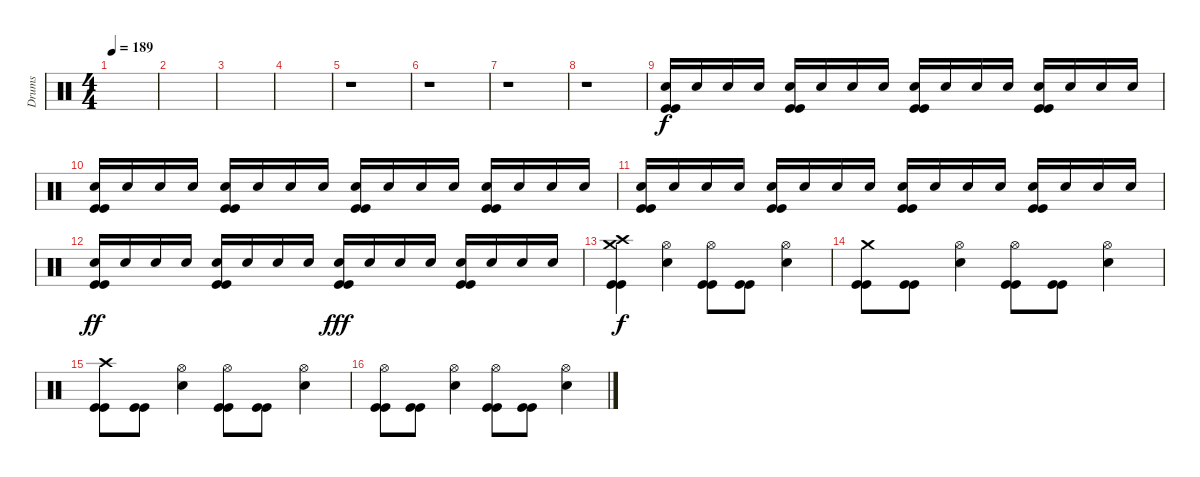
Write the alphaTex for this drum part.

\track ("Drums" "Drums") {instrument percussion}
\staff {score}
\articulation defaults
\ts (4 4)
\tempo 189
\clef neutral
\ks c
|
|
|
|
r.1 |
r.1 |
r.1 |
r.1 |
("Electric Snare (hit)" "Kick (hit)" "Kick (hit)").16 "Electric Snare (hit)".16 "Electric Snare (hit)".16 "Electric Snare (hit)".16 ("Electric Snare (hit)" "Kick (hit)" "Kick (hit)").16 "Electric Snare (hit)".16 "Electric Snare (hit)".16 "Electric Snare (hit)".16 ("Electric Snare (hit)" "Kick (hit)" "Kick (hit)").16 "Electric Snare (hit)".16 "Electric Snare (hit)".16 "Electric Snare (hit)".16 ("Electric Snare (hit)" "Kick (hit)" "Kick (hit)").16 "Electric Snare (hit)".16 "Electric Snare (hit)".16 "Electric Snare (hit)".16 |
("Electric Snare (hit)" "Kick (hit)" "Kick (hit)").16 "Electric Snare (hit)".16 "Electric Snare (hit)".16 "Electric Snare (hit)".16 ("Electric Snare (hit)" "Kick (hit)" "Kick (hit)").16 "Electric Snare (hit)".16 "Electric Snare (hit)".16 "Electric Snare (hit)".16 ("Electric Snare (hit)" "Kick (hit)" "Kick (hit)").16 "Electric Snare (hit)".16 "Electric Snare (hit)".16 "Electric Snare (hit)".16 ("Electric Snare (hit)" "Kick (hit)" "Kick (hit)").16 "Electric Snare (hit)".16 "Electric Snare (hit)".16 "Electric Snare (hit)".16 |
("Electric Snare (hit)" "Kick (hit)" "Kick (hit)").16{dy f} "Electric Snare (hit)".16 "Electric Snare (hit)".16 "Electric Snare (hit)".16 ("Electric Snare (hit)" "Kick (hit)" "Kick (hit)").16 "Electric Snare (hit)".16 "Electric Snare (hit)".16 "Electric Snare (hit)".16 ("Electric Snare (hit)" "Kick (hit)" "Kick (hit)").16 "Electric Snare (hit)".16 "Electric Snare (hit)".16 "Electric Snare (hit)".16 ("Electric Snare (hit)" "Kick (hit)" "Kick (hit)").16 "Electric Snare (hit)".16 "Electric Snare (hit)".16 "Electric Snare (hit)".16 |
("Electric Snare (hit)" "Kick (hit)" "Kick (hit)").16{dy ff} "Electric Snare (hit)".16 "Electric Snare (hit)".16 "Electric Snare (hit)".16 ("Electric Snare (hit)" "Kick (hit)" "Kick (hit)").16 "Electric Snare (hit)".16 "Electric Snare (hit)".16 "Electric Snare (hit)".16 ("Electric Snare (hit)" "Kick (hit)" "Kick (hit)").16{dy fff} "Electric Snare (hit)".16 "Electric Snare (hit)".16 "Electric Snare (hit)".16 ("Electric Snare (hit)" "Kick (hit)" "Kick (hit)").16 "Electric Snare (hit)".16 "Electric Snare (hit)".16 "Electric Snare (hit)".16 |
("Crash high (hit)" "Crash medium (hit)" "Kick (hit)" "Kick (hit)").4{dy f} ("Hi-Hat (open)" "Electric Snare (hit)").4 ("Hi-Hat (open)" "Kick (hit)" "Kick (hit)").8 ("Kick (hit)" "Kick (hit)").8 ("Hi-Hat (open)" "Electric Snare (hit)").4 |
("Crash medium (hit)" "Kick (hit)" "Kick (hit)").8 ("Kick (hit)" "Kick (hit)").8 ("Hi-Hat (open)" "Electric Snare (hit)").4 ("Hi-Hat (open)" "Kick (hit)" "Kick (hit)").8 ("Kick (hit)" "Kick (hit)").8 ("Hi-Hat (open)" "Electric Snare (hit)").4 |
("Crash high (hit)" "Kick (hit)" "Kick (hit)").8 ("Kick (hit)" "Kick (hit)").8 ("Hi-Hat (open)" "Electric Snare (hit)").4 ("Hi-Hat (open)" "Kick (hit)" "Kick (hit)").8 ("Kick (hit)" "Kick (hit)").8 ("Hi-Hat (open)" "Electric Snare (hit)").4 |
("Hi-Hat (open)" "Kick (hit)" "Kick (hit)").8 ("Kick (hit)" "Kick (hit)").8 ("Hi-Hat (open)" "Electric Snare (hit)").4 ("Hi-Hat (open)" "Kick (hit)" "Kick (hit)").8 ("Kick (hit)" "Kick (hit)").8 ("Hi-Hat (open)" "Electric Snare (hit)").4
